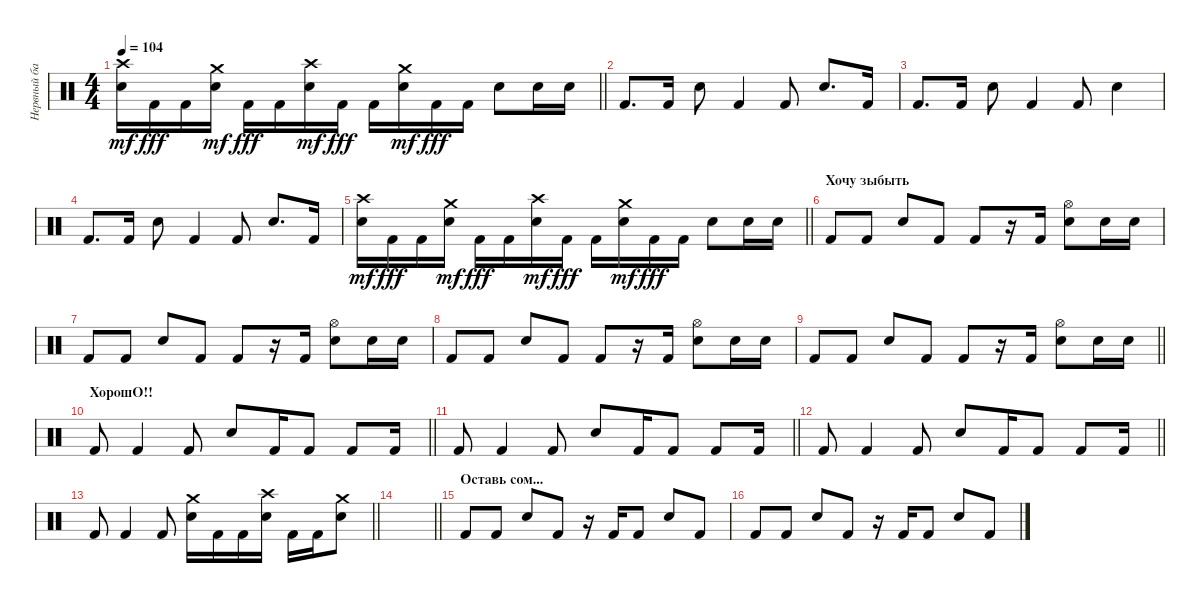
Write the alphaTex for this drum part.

\track ("Нервный барабанщик" "Нервный ба") {instrument percussion}
\staff {score}
\articulation defaults
\ts (4 4)
\tempo 104
\clef neutral
\barLineRight lightlight
\ks c
("Snare (hit) 2" "Crash high (hit)").16{dy mf} "Kick (hit) 2".16{dy fff} "Kick (hit) 2".16 ("Snare (hit) 2" "Crash medium (hit)").16{dy mf} "Kick (hit) 2".16{dy fff} "Kick (hit) 2".16 ("Snare (hit) 2" "Crash high (hit)").16{dy mf} "Kick (hit) 2".16{dy fff} "Kick (hit) 2".16 ("Snare (hit) 2" "Crash medium (hit)").16{dy mf} "Kick (hit) 2".16{dy fff} "Kick (hit) 2".16 "Snare (hit) 2".8 "Snare (hit) 2".16 "Snare (hit) 2".16 |
"Kick (hit) 2".8{d} "Kick (hit) 2".16 "Snare (hit) 2".8 "Kick (hit) 2".4 "Kick (hit) 2".8 "Snare (hit) 2".8{d} "Kick (hit) 2".16 |
"Kick (hit) 2".8{d} "Kick (hit) 2".16 "Snare (hit) 2".8 "Kick (hit) 2".4 "Kick (hit) 2".8 "Snare (hit) 2".4 |
"Kick (hit) 2".8{d} "Kick (hit) 2".16 "Snare (hit) 2".8 "Kick (hit) 2".4 "Kick (hit) 2".8 "Snare (hit) 2".8{d} "Kick (hit) 2".16 |
\barLineRight lightlight
("Snare (hit) 2" "Crash high (hit)").16{dy mf} "Kick (hit) 2".16{dy fff} "Kick (hit) 2".16 ("Snare (hit) 2" "Crash medium (hit)").16{dy mf} "Kick (hit) 2".16{dy fff} "Kick (hit) 2".16 ("Snare (hit) 2" "Crash high (hit)").16{dy mf} "Kick (hit) 2".16{dy fff} "Kick (hit) 2".16 ("Snare (hit) 2" "Crash medium (hit)").16{dy mf} "Kick (hit) 2".16{dy fff} "Kick (hit) 2".16 "Snare (hit) 2".8 "Snare (hit) 2".16 "Snare (hit) 2".16 |
\section ("" "Хочу зыбыть")
"Kick (hit) 2".8 "Kick (hit) 2".8 "Snare (hit) 2".8 "Kick (hit) 2".8 "Kick (hit) 2".8 r.16 "Kick (hit) 2".16 ("Hi-Hat (open)" "Snare (hit) 2").8 "Snare (hit) 2".16 "Snare (hit) 2".16 |
"Kick (hit) 2".8 "Kick (hit) 2".8 "Snare (hit) 2".8 "Kick (hit) 2".8 "Kick (hit) 2".8 r.16 "Kick (hit) 2".16 ("Hi-Hat (open)" "Snare (hit) 2").8 "Snare (hit) 2".16 "Snare (hit) 2".16 |
"Kick (hit) 2".8 "Kick (hit) 2".8 "Snare (hit) 2".8 "Kick (hit) 2".8 "Kick (hit) 2".8 r.16 "Kick (hit) 2".16 ("Hi-Hat (open)" "Snare (hit) 2").8 "Snare (hit) 2".16 "Snare (hit) 2".16 |
\barLineRight lightlight "Kick (hit) 2".8 "Kick (hit) 2".8 "Snare (hit) 2".8 "Kick (hit) 2".8 "Kick (hit) 2".8
r.16 "Kick (hit) 2".16 ("Hi-Hat (open)" "Snare (hit) 2").8 "Snare (hit) 2".16 "Snare (hit) 2".16 |
\section ("" "ХорошО!!")
\barLineRight lightlight "Kick (hit) 2".8 "Kick (hit) 2".4 "Kick (hit) 2".8 "Snare (hit) 2".8 "Kick (hit) 2".16 "Kick (hit) 2".8 "Kick (hit) 2".8 "Kick (hit) 2".16
|
\barLineRight lightlight "Kick (hit) 2".8 "Kick (hit) 2".4 "Kick (hit) 2".8 "Snare (hit) 2".8 "Kick (hit) 2".16 "Kick (hit) 2".8 "Kick (hit) 2".8 "Kick (hit) 2".16
|
\barLineRight lightlight "Kick (hit) 2".8 "Kick (hit) 2".4 "Kick (hit) 2".8 "Snare (hit) 2".8 "Kick (hit) 2".16 "Kick (hit) 2".8 "Kick (hit) 2".8 "Kick (hit) 2".16
|
\barLineRight lightlight "Kick (hit) 2".8 "Kick (hit) 2".4 "Kick (hit) 2".8
("Crash medium (hit)" "Snare (hit) 2").16 "Kick (hit) 2".16 "Kick (hit) 2".16 ("Crash high (hit)" "Snare (hit) 2").16 "Kick (hit) 2".16 "Kick (hit) 2".16 ("Crash medium (hit)" "Snare (hit) 2").8 |
\barLineRight lightlight
|
\section ("" "Оставь сом...")
"Kick (hit) 2".8 "Kick (hit) 2".8 "Snare (hit) 2".8 "Kick (hit) 2".8 r.16 "Kick (hit) 2".16 "Kick (hit) 2".8 "Snare (hit) 2".8 "Kick (hit) 2".8 |
"Kick (hit) 2".8 "Kick (hit) 2".8 "Snare (hit) 2".8 "Kick (hit) 2".8 r.16 "Kick (hit) 2".16 "Kick (hit) 2".8 "Snare (hit) 2".8 "Kick (hit) 2".8
